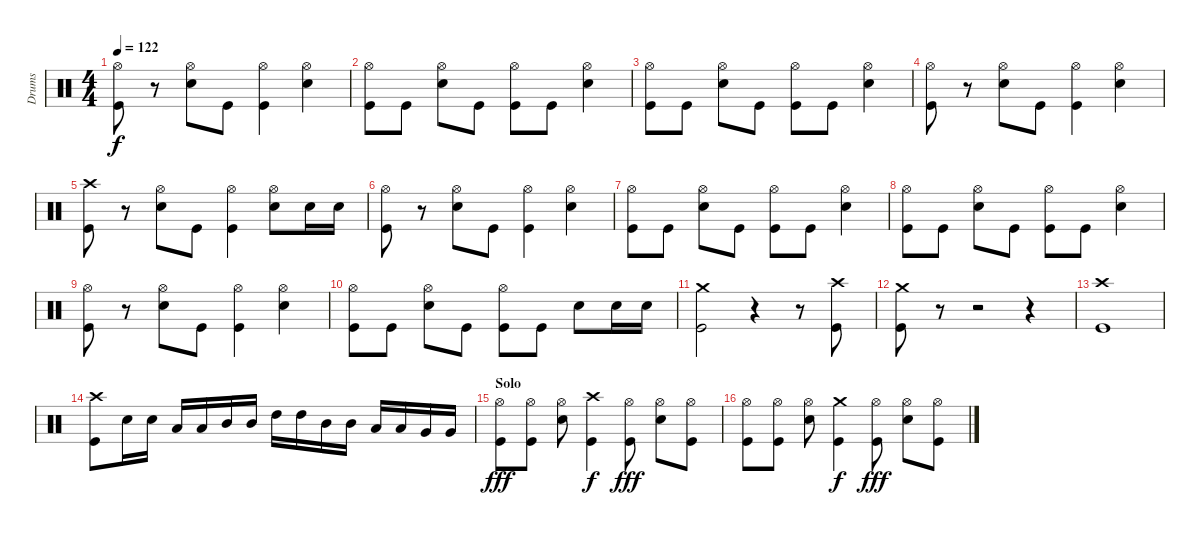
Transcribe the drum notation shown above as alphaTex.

\track ("Drums" "Drums") {instrument percussion}
\staff {score}
\articulation defaults
\ts (4 4)
\tempo 122
\clef neutral
\ks c
("Hi-Hat (open)" "Kick (hit)").8{dy f} r.8 ("Hi-Hat (open)" "Snare (hit) 2").8 "Kick (hit)".8 ("Hi-Hat (open)" "Kick (hit)").4 ("Hi-Hat (open)" "Snare (hit) 2").4 |
("Hi-Hat (open)" "Kick (hit)").8 "Kick (hit)".8 ("Hi-Hat (open)" "Snare (hit) 2").8 "Kick (hit)".8 ("Hi-Hat (open)" "Kick (hit)").8 "Kick (hit)".8 ("Hi-Hat (open)" "Snare (hit) 2").4 |
("Hi-Hat (open)" "Kick (hit)").8 "Kick (hit)".8 ("Hi-Hat (open)" "Snare (hit) 2").8 "Kick (hit)".8 ("Hi-Hat (open)" "Kick (hit)").8 "Kick (hit)".8 ("Hi-Hat (open)" "Snare (hit) 2").4 |
("Hi-Hat (open)" "Kick (hit)").8 r.8 ("Hi-Hat (open)" "Snare (hit) 2").8 "Kick (hit)".8 ("Hi-Hat (open)" "Kick (hit)").4 ("Hi-Hat (open)" "Snare (hit) 2").4 |
("Crash high (hit)" "Kick (hit)").8 r.8 ("Hi-Hat (open)" "Snare (hit) 2").8 "Kick (hit)".8 ("Hi-Hat (open)" "Kick (hit)").4 ("Hi-Hat (open)" "Snare (hit) 2").8 "Snare (hit) 2".16 "Snare (hit) 2".16 |
("Hi-Hat (open)" "Kick (hit)").8 r.8 ("Hi-Hat (open)" "Snare (hit) 2").8 "Kick (hit)".8 ("Hi-Hat (open)" "Kick (hit)").4 ("Hi-Hat (open)" "Snare (hit) 2").4 |
("Hi-Hat (open)" "Kick (hit)").8 "Kick (hit)".8 ("Hi-Hat (open)" "Snare (hit) 2").8 "Kick (hit)".8 ("Hi-Hat (open)" "Kick (hit)").8 "Kick (hit)".8 ("Hi-Hat (open)" "Snare (hit) 2").4 |
("Hi-Hat (open)" "Kick (hit)").8 "Kick (hit)".8 ("Hi-Hat (open)" "Snare (hit) 2").8 "Kick (hit)".8 ("Hi-Hat (open)" "Kick (hit)").8 "Kick (hit)".8 ("Hi-Hat (open)" "Snare (hit) 2").4 |
("Hi-Hat (open)" "Kick (hit)").8 r.8 ("Hi-Hat (open)" "Snare (hit) 2").8 "Kick (hit)".8 ("Hi-Hat (open)" "Kick (hit)").4 ("Hi-Hat (open)" "Snare (hit) 2").4 |
("Hi-Hat (open)" "Kick (hit)").8 "Kick (hit)".8 ("Hi-Hat (open)" "Snare (hit) 2").8 "Kick (hit)".8 ("Hi-Hat (open)" "Kick (hit)").8 "Kick (hit)".8 "Snare (hit) 2".8 "Snare (hit) 2".16 "Snare (hit) 2".16 |
("Crash medium (hit)" "Kick (hit)").2 r.4 r.8 ("Crash high (hit)" "Kick (hit)").8 |
("Crash medium (hit)" "Kick (hit)").8 r.8 r.2 r.4 |
("Crash high (hit)" "Kick (hit)").1 |
("Crash high (hit)" "Kick (hit)").8 "Snare (hit) 2".16 "Snare (hit) 2".16 "Low Tom (hit)".16 "Low Tom (hit)".16 "Mid Tom (hit)".16 "Mid Tom (hit)".16 "High Tom (hit)".16 "High Tom (hit)".16 "Mid Tom (hit)".16 "Mid Tom (hit)".16 "Low Tom (hit)".16 "Low Tom (hit)".16 "Very Low Tom (hit)".16 "Very Low Tom (hit)".16 |
\section ("" "Solo")
("Hi-Hat (open)" "Kick (hit)").8{dy fff} ("Hi-Hat (open)" "Kick (hit)").8 ("Hi-Hat (open)" "Snare (hit) 2").8 ("Crash high (hit)" "Kick (hit)").4{dy f} ("Hi-Hat (open)" "Kick (hit)").8{dy fff} ("Hi-Hat (open)" "Snare (hit) 2").8 ("Hi-Hat (open)" "Kick (hit)").8 |
("Hi-Hat (open)" "Kick (hit)").8 ("Hi-Hat (open)" "Kick (hit)").8 ("Hi-Hat (open)" "Snare (hit) 2").8 ("Crash medium (hit)" "Kick (hit)").4{dy f} ("Hi-Hat (open)" "Kick (hit)").8{dy fff} ("Hi-Hat (open)" "Snare (hit) 2").8 ("Hi-Hat (open)" "Kick (hit)").8
